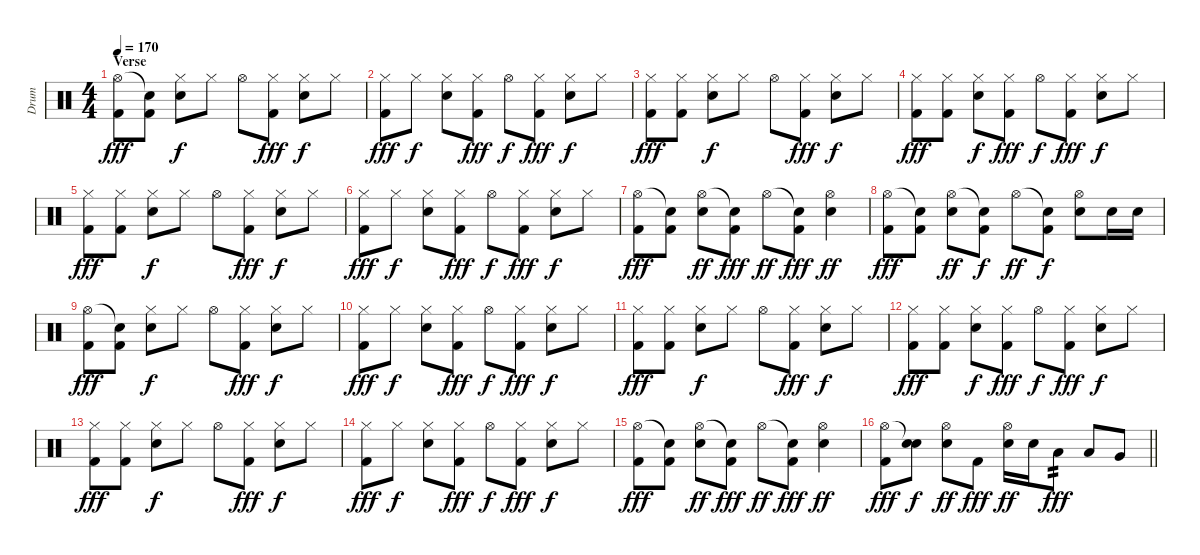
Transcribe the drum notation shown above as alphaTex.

\track ("Drum" "Drum") {instrument percussion}
\staff {score}
\articulation defaults
\ts (4 4)
\section ("" "Verse")
\tempo 170
\clef neutral
\ks c
("Hi-Hat (open)" "Kick (hit) 2").8{dy fff} ("Snare (hit)"{t} "Kick (hit) 2").8 ("Hi-Hat (closed)" "Snare (hit) 2").8{dy f} "Hi-Hat (closed)".8 "Hi-Hat (open)".8 ("Hi-Hat (closed)" "Kick (hit) 2").8{dy fff} ("Hi-Hat (closed)" "Snare (hit) 2").8{dy f} "Hi-Hat (closed)".8 |
("Hi-Hat (closed)" "Kick (hit) 2").8{dy fff} "Hi-Hat (closed)".8{dy f} ("Hi-Hat (closed)" "Snare (hit) 2").8 ("Hi-Hat (closed)" "Kick (hit) 2").8{dy fff} "Hi-Hat (open)".8{dy f} ("Hi-Hat (closed)" "Kick (hit) 2").8{dy fff} ("Hi-Hat (closed)" "Snare (hit) 2").8{dy f} "Hi-Hat (closed)".8 |
("Hi-Hat (closed)" "Kick (hit) 2").8{dy fff} ("Hi-Hat (closed)" "Kick (hit) 2").8 ("Hi-Hat (closed)" "Snare (hit) 2").8{dy f} "Hi-Hat (closed)".8 "Hi-Hat (open)".8 ("Hi-Hat (closed)" "Kick (hit) 2").8{dy fff} ("Hi-Hat (closed)" "Snare (hit) 2").8{dy f} "Hi-Hat (closed)".8 |
("Hi-Hat (closed)" "Kick (hit) 2").8{dy fff} ("Hi-Hat (closed)" "Kick (hit) 2").8 ("Hi-Hat (closed)" "Snare (hit) 2").8{dy f} ("Hi-Hat (closed)" "Kick (hit) 2").8{dy fff} "Hi-Hat (open)".8{dy f} ("Hi-Hat (closed)" "Kick (hit) 2").8{dy fff} ("Hi-Hat (closed)" "Snare (hit) 2").8{dy f} "Hi-Hat (closed)".8 |
("Hi-Hat (closed)" "Kick (hit) 2").8{dy fff} ("Hi-Hat (closed)" "Kick (hit) 2").8 ("Hi-Hat (closed)" "Snare (hit) 2").8{dy f} "Hi-Hat (closed)".8 "Hi-Hat (open)".8 ("Hi-Hat (closed)" "Kick (hit) 2").8{dy fff} ("Hi-Hat (closed)" "Snare (hit) 2").8{dy f} "Hi-Hat (closed)".8 |
("Hi-Hat (closed)" "Kick (hit) 2").8{dy fff} "Hi-Hat (closed)".8{dy f} ("Hi-Hat (closed)" "Snare (hit) 2").8 ("Hi-Hat (closed)" "Kick (hit) 2").8{dy fff} "Hi-Hat (open)".8{dy f} ("Hi-Hat (closed)" "Kick (hit) 2").8{dy fff} ("Hi-Hat (closed)" "Snare (hit) 2").8{dy f} "Hi-Hat (closed)".8 |
("Hi-Hat (open)" "Kick (hit) 2").8{dy fff} ("Snare (hit)"{t} "Kick (hit) 2").8 ("Hi-Hat (open)" "Snare (hit) 2").8{dy ff} ("Snare (hit)"{t} "Kick (hit) 2").8{dy fff} "Hi-Hat (open)".8{dy ff} ("Snare (hit)"{t} "Kick (hit) 2").8{dy fff} ("Hi-Hat (open)" "Snare (hit) 2").4{dy ff} |
("Hi-Hat (open)" "Kick (hit) 2").8{dy fff} ("Snare (hit)"{t} "Kick (hit) 2").8 ("Hi-Hat (open)" "Snare (hit) 2").8{dy ff} ("Snare (hit)"{t} "Kick (hit) 2").8{dy f} "Hi-Hat (open)".8{dy ff} ("Snare (hit)"{t} "Kick (hit) 2").8{dy f} ("Hi-Hat (open)" "Snare (hit) 2").8 "Snare (hit) 2".16 "Snare (hit) 2".16 |
("Hi-Hat (open)" "Kick (hit) 2").8{dy fff} ("Snare (hit)"{t} "Kick (hit) 2").8 ("Hi-Hat (closed)" "Snare (hit) 2").8{dy f} "Hi-Hat (closed)".8 "Hi-Hat (open)".8 ("Hi-Hat (closed)" "Kick (hit) 2").8{dy fff} ("Hi-Hat (closed)" "Snare (hit) 2").8{dy f} "Hi-Hat (closed)".8 |
("Hi-Hat (closed)" "Kick (hit) 2").8{dy fff} "Hi-Hat (closed)".8{dy f} ("Hi-Hat (closed)" "Snare (hit) 2").8 ("Hi-Hat (closed)" "Kick (hit) 2").8{dy fff} "Hi-Hat (open)".8{dy f} ("Hi-Hat (closed)" "Kick (hit) 2").8{dy fff} ("Hi-Hat (closed)" "Snare (hit) 2").8{dy f} "Hi-Hat (closed)".8 |
("Hi-Hat (closed)" "Kick (hit) 2").8{dy fff} ("Hi-Hat (closed)" "Kick (hit) 2").8 ("Hi-Hat (closed)" "Snare (hit) 2").8{dy f} "Hi-Hat (closed)".8 "Hi-Hat (open)".8 ("Hi-Hat (closed)" "Kick (hit) 2").8{dy fff} ("Hi-Hat (closed)" "Snare (hit) 2").8{dy f} "Hi-Hat (closed)".8 |
("Hi-Hat (closed)" "Kick (hit) 2").8{dy fff} ("Hi-Hat (closed)" "Kick (hit) 2").8 ("Hi-Hat (closed)" "Snare (hit) 2").8{dy f} ("Hi-Hat (closed)" "Kick (hit) 2").8{dy fff} "Hi-Hat (open)".8{dy f} ("Hi-Hat (closed)" "Kick (hit) 2").8{dy fff} ("Hi-Hat (closed)" "Snare (hit) 2").8{dy f} "Hi-Hat (closed)".8 |
("Hi-Hat (closed)" "Kick (hit) 2").8{dy fff} ("Hi-Hat (closed)" "Kick (hit) 2").8 ("Hi-Hat (closed)" "Snare (hit) 2").8{dy f} "Hi-Hat (closed)".8 "Hi-Hat (open)".8 ("Hi-Hat (closed)" "Kick (hit) 2").8{dy fff} ("Hi-Hat (closed)" "Snare (hit) 2").8{dy f} "Hi-Hat (closed)".8 |
("Hi-Hat (closed)" "Kick (hit) 2").8{dy fff} "Hi-Hat (closed)".8{dy f} ("Hi-Hat (closed)" "Snare (hit) 2").8 ("Hi-Hat (closed)" "Kick (hit) 2").8{dy fff} "Hi-Hat (open)".8{dy f} ("Hi-Hat (closed)" "Kick (hit) 2").8{dy fff} ("Hi-Hat (closed)" "Snare (hit) 2").8{dy f} "Hi-Hat (closed)".8 |
("Hi-Hat (open)" "Kick (hit) 2").8{dy fff} ("Snare (hit)"{t} "Kick (hit) 2").8 ("Hi-Hat (open)" "Snare (hit) 2").8{dy ff} ("Snare (hit)"{t} "Kick (hit) 2").8{dy fff} "Hi-Hat (open)".8{dy ff} ("Snare (hit)"{t} "Kick (hit) 2").8{dy fff} ("Hi-Hat (open)" "Snare (hit) 2").4{dy ff} |
\barLineRight lightlight
("Hi-Hat (open)" "Kick (hit) 2").8{dy fff} ("Snare (hit)"{t} "Snare (hit) 2").8{dy f} ("Hi-Hat (open)" "Snare (hit) 2").8{dy ff} "Kick (hit) 2".8{dy fff} ("Hi-Hat (open)" "Snare (hit) 2").16{dy ff} "Snare (hit) 2".16 "Low Tom (hit)".8{tp 2 dy fff} "Low Tom (hit)".8 "Very Low Tom (hit)".8
